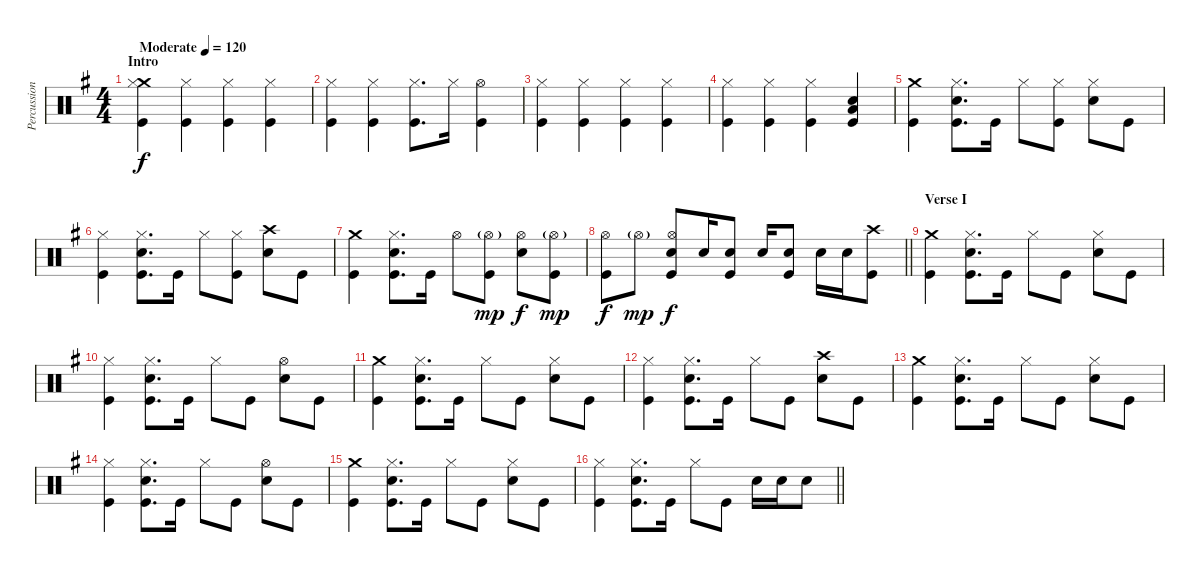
\track ("Percussion" "Percussion") {instrument percussion}
\staff {score}
\articulation defaults
\ts (4 4)
\section ("" "Intro")
\tempo (120 "Moderate")
\clef neutral
\ks g
("Crash medium (hit)" "Hi-Hat (closed)" "Kick (hit)").4{dy f} ("Hi-Hat (closed)" "Kick (hit)").4 ("Hi-Hat (closed)" "Kick (hit)").4 ("Hi-Hat (closed)" "Kick (hit)").4 |
("Hi-Hat (closed)" "Kick (hit)").4 ("Hi-Hat (closed)" "Kick (hit)").4 ("Hi-Hat (closed)" "Kick (hit)").8{d} "Hi-Hat (closed)".16 ("Hi-Hat (open)" "Kick (hit)").4 |
("Hi-Hat (closed)" "Kick (hit)").4 ("Hi-Hat (closed)" "Kick (hit)").4 ("Hi-Hat (closed)" "Kick (hit)").4 ("Hi-Hat (closed)" "Kick (hit)").4 |
("Hi-Hat (closed)" "Kick (hit)").4 ("Hi-Hat (closed)" "Kick (hit)").4 ("Hi-Hat (closed)" "Kick (hit)").4 ("Electric Snare (hit)" "Low Floor Tom (hit)" "Kick (hit)").4 |
("Crash medium (hit)" "Kick (hit)").4 ("Hi-Hat (closed)" "Electric Snare (hit)" "Kick (hit)").8{d} "Kick (hit)".16 "Hi-Hat (closed)".8 ("Hi-Hat (closed)" "Kick (hit)").8 ("Hi-Hat (closed)" "Electric Snare (hit)").8 "Kick (hit)".8 |
("Hi-Hat (closed)" "Kick (hit)").4 ("Hi-Hat (closed)" "Electric Snare (hit)" "Kick (hit)").8{d} "Kick (hit)".16 "Hi-Hat (closed)".8 ("Hi-Hat (closed)" "Kick (hit)").8 ("Crash high (hit)" "Electric Snare (hit)").8 "Kick (hit)".8 |
("Crash medium (hit)" "Kick (hit)").4 ("Hi-Hat (closed)" "Electric Snare (hit)" "Kick (hit)").8{d} "Kick (hit)".16 "Hi-Hat (open)".8 ("Hi-Hat (open)"{g} "Kick (hit)").8{dy mp} ("Hi-Hat (open)" "Electric Snare (hit)").8{dy f} ("Hi-Hat (open)"{g} "Kick (hit)").8{dy mp} |
\barLineRight lightlight
("Hi-Hat (open)" "Kick (hit)").8{dy f} "Hi-Hat (open)"{g}.8{dy mp} ("Hi-Hat (open)" "Electric Snare (hit)" "Kick (hit)").8{dy f} "Electric Snare (hit)".16 ("Electric Snare (hit)" "Kick (hit)").8 "Electric Snare (hit)".16 ("Electric Snare (hit)" "Kick (hit)").8 "Electric Snare (hit)".16 "Electric Snare (hit)".16 ("Crash high (hit)" "Kick (hit)").8 |
\section ("" "Verse I")
("Crash medium (hit)" "Kick (hit)").4 ("Hi-Hat (closed)" "Electric Snare (hit)" "Kick (hit)").8{d} "Kick (hit)".16 "Hi-Hat (closed)".8 "Kick (hit)".8 ("Hi-Hat (closed)" "Electric Snare (hit)").8 "Kick (hit)".8 |
("Hi-Hat (closed)" "Kick (hit)").4 ("Hi-Hat (closed)" "Electric Snare (hit)" "Kick (hit)").8{d} "Kick (hit)".16 "Hi-Hat (closed)".8 "Kick (hit)".8 ("Hi-Hat (open)" "Electric Snare (hit)").8 "Kick (hit)".8 |
("Crash medium (hit)" "Kick (hit)").4 ("Hi-Hat (closed)" "Electric Snare (hit)" "Kick (hit)").8{d} "Kick (hit)".16 "Hi-Hat (closed)".8 "Kick (hit)".8 ("Hi-Hat (closed)" "Electric Snare (hit)").8 "Kick (hit)".8 |
("Hi-Hat (closed)" "Kick (hit)").4 ("Hi-Hat (closed)" "Electric Snare (hit)" "Kick (hit)").8{d} "Kick (hit)".16 "Hi-Hat (closed)".8 "Kick (hit)".8 ("Crash high (hit)" "Electric Snare (hit)").8 "Kick (hit)".8 |
("Crash medium (hit)" "Kick (hit)").4 ("Hi-Hat (closed)" "Electric Snare (hit)" "Kick (hit)").8{d} "Kick (hit)".16 "Hi-Hat (closed)".8 "Kick (hit)".8 ("Hi-Hat (closed)" "Electric Snare (hit)").8 "Kick (hit)".8 |
("Hi-Hat (closed)" "Kick (hit)").4 ("Hi-Hat (closed)" "Electric Snare (hit)" "Kick (hit)").8{d} "Kick (hit)".16 "Hi-Hat (closed)".8 "Kick (hit)".8 ("Hi-Hat (open)" "Electric Snare (hit)").8 "Kick (hit)".8 |
("Crash medium (hit)" "Kick (hit)").4 ("Hi-Hat (closed)" "Electric Snare (hit)" "Kick (hit)").8{d} "Kick (hit)".16 "Hi-Hat (closed)".8 "Kick (hit)".8 ("Hi-Hat (closed)" "Electric Snare (hit)").8 "Kick (hit)".8 |
\barLineRight lightlight
("Hi-Hat (closed)" "Kick (hit)").4 ("Hi-Hat (closed)" "Electric Snare (hit)" "Kick (hit)").8{d} "Kick (hit)".16 "Hi-Hat (closed)".8 "Kick (hit)".8 "Electric Snare (hit)".16 "Electric Snare (hit)".16 "Electric Snare (hit)".8
